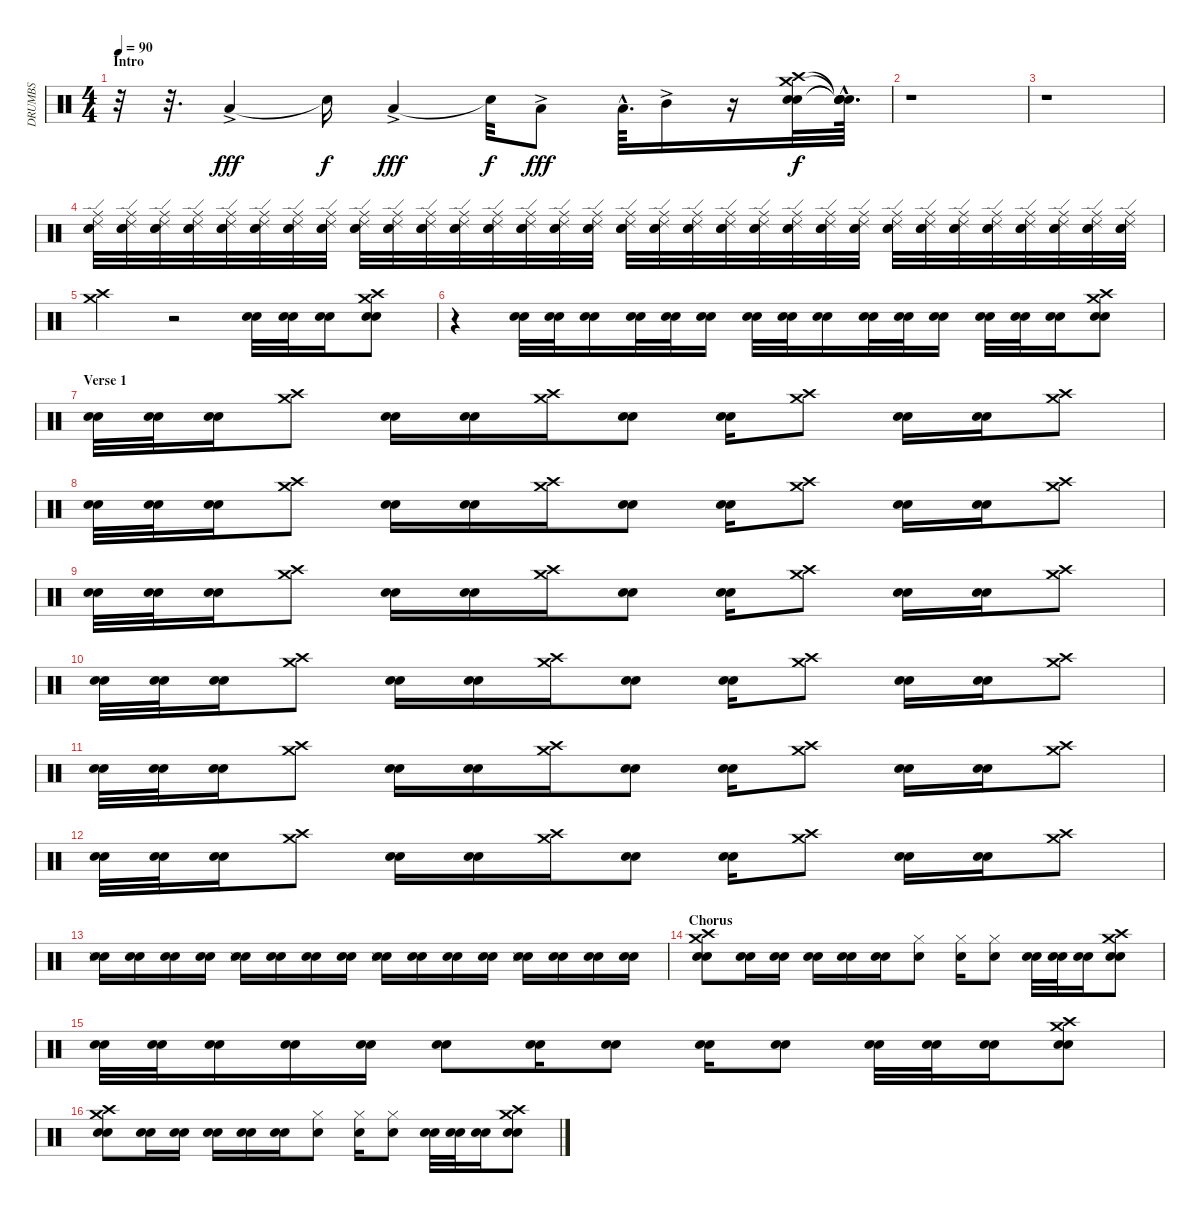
\track ("DRUMBS" "DRUMBS") {instrument percussion}
\staff {score}
\articulation defaults
\ts (4 4)
\section ("" "Intro")
\tempo 90
\clef neutral
\ks c
r.32{dy fff} r.32{d} "Low Tom (hit)"{ac}.4 "Snare (hit)"{t}.16{dy f} "Low Tom (hit)"{ac}.4{dy fff} "Snare (hit)"{t}.32{dy f} "Low Tom (hit)"{ac}.8{dy fff} "Low Tom (hit)"{hac}.64{d} "Mid Tom (hit)"{ac}.16 r.16 ("Crash high (hit)" "Crash medium (hit)" "Electric Snare (hit)" "Snare (hit) 2").32{dy f} ("Snare (hit)"{hac t} "Snare (hit)"{hac t} "Snare (hit)"{hac t} "Snare (hit)"{hac t}).64{d} |
r.1 |
r.1 |
("Snare (hit) 2" "Electric Snare (hit)" "Ride (edge) 2" "Ride (middle)").32{balance 8} ("Snare (hit) 2" "Electric Snare (hit)" "Ride (edge) 2" "Ride (middle)").32 ("Snare (hit) 2" "Electric Snare (hit)" "Ride (edge) 2" "Ride (middle)").32 ("Snare (hit) 2" "Electric Snare (hit)" "Ride (edge) 2" "Ride (middle)").32 ("Snare (hit) 2" "Electric Snare (hit)" "Ride (edge) 2" "Ride (middle)").32 ("Snare (hit) 2" "Electric Snare (hit)" "Ride (edge) 2" "Ride (middle)").32 ("Snare (hit) 2" "Electric Snare (hit)" "Ride (edge) 2" "Ride (middle)").32 ("Snare (hit) 2" "Electric Snare (hit)" "Ride (edge) 2" "Ride (middle)").32 ("Snare (hit) 2" "Electric Snare (hit)" "Ride (edge) 2" "Ride (middle)").32 ("Snare (hit) 2" "Electric Snare (hit)" "Ride (edge) 2" "Ride (middle)").32 ("Snare (hit) 2" "Electric Snare (hit)" "Ride (edge) 2" "Ride (middle)").32 ("Snare (hit) 2" "Electric Snare (hit)" "Ride (edge) 2" "Ride (middle)").32 ("Snare (hit) 2" "Electric Snare (hit)" "Ride (edge) 2" "Ride (middle)").32 ("Snare (hit) 2" "Electric Snare (hit)" "Ride (edge) 2" "Ride (middle)").32 ("Snare (hit) 2" "Electric Snare (hit)" "Ride (edge) 2" "Ride (middle)").32 ("Snare (hit) 2" "Electric Snare (hit)" "Ride (edge) 2" "Ride (middle)").32 ("Snare (hit) 2" "Electric Snare (hit)" "Ride (edge) 2" "Ride (middle)").32 ("Snare (hit) 2" "Electric Snare (hit)" "Ride (edge) 2" "Ride (middle)").32 ("Snare (hit) 2" "Electric Snare (hit)" "Ride (edge) 2" "Ride (middle)").32 ("Snare (hit) 2" "Electric Snare (hit)" "Ride (edge) 2" "Ride (middle)").32 ("Snare (hit) 2" "Electric Snare (hit)" "Ride (edge) 2" "Ride (middle)").32 ("Snare (hit) 2" "Electric Snare (hit)" "Ride (edge) 2" "Ride (middle)").32 ("Snare (hit) 2" "Electric Snare (hit)" "Ride (edge) 2" "Ride (middle)").32 ("Snare (hit) 2" "Electric Snare (hit)" "Ride (edge) 2" "Ride (middle)").32 ("Snare (hit) 2" "Electric Snare (hit)" "Ride (edge) 2" "Ride (middle)").32 ("Snare (hit) 2" "Electric Snare (hit)" "Ride (edge) 2" "Ride (middle)").32 ("Snare (hit) 2" "Electric Snare (hit)" "Ride (edge) 2" "Ride (middle)").32 ("Snare (hit) 2" "Electric Snare (hit)" "Ride (edge) 2" "Ride (middle)").32 ("Snare (hit) 2" "Electric Snare (hit)" "Ride (edge) 2" "Ride (middle)").32 ("Snare (hit) 2" "Electric Snare (hit)" "Ride (edge) 2" "Ride (middle)").32 ("Snare (hit) 2" "Electric Snare (hit)" "Ride (edge) 2" "Ride (middle)").32 ("Snare (hit) 2" "Electric Snare (hit)" "Ride (edge) 2" "Ride (middle)").32 |
("Crash high (hit)" "Crash medium (hit)").4 r.2 ("Electric Snare (hit)" "Snare (hit) 2").32 ("Electric Snare (hit)" "Snare (hit) 2").32 ("Electric Snare (hit)" "Snare (hit) 2").16 ("Electric Snare (hit)" "Snare (hit) 2" "Crash high (hit)" "Crash medium (hit)").8 |
r.4 ("Electric Snare (hit)" "Snare (hit) 2").32 ("Electric Snare (hit)" "Snare (hit) 2").32 ("Electric Snare (hit)" "Snare (hit) 2").16 ("Electric Snare (hit)" "Snare (hit) 2").32 ("Electric Snare (hit)" "Snare (hit) 2").32 ("Electric Snare (hit)" "Snare (hit) 2").16 ("Electric Snare (hit)" "Snare (hit) 2").32 ("Electric Snare (hit)" "Snare (hit) 2").32 ("Electric Snare (hit)" "Snare (hit) 2").16 ("Electric Snare (hit)" "Snare (hit) 2").32 ("Electric Snare (hit)" "Snare (hit) 2").32 ("Electric Snare (hit)" "Snare (hit) 2").16 ("Snare (hit) 2" "Electric Snare (hit)").32 ("Electric Snare (hit)" "Snare (hit) 2").32 ("Electric Snare (hit)" "Snare (hit) 2").16 ("Snare (hit) 2" "Electric Snare (hit)" "Crash medium (hit)" "Crash high (hit)").8 |
\section ("" "Verse 1")
("Electric Snare (hit)" "Snare (hit) 2").32 ("Electric Snare (hit)" "Snare (hit) 2").32 ("Electric Snare (hit)" "Snare (hit) 2").16 ("Crash medium (hit)" "Crash high (hit)").8 ("Electric Snare (hit)" "Snare (hit) 2").16 ("Electric Snare (hit)" "Snare (hit) 2").16 ("Crash medium (hit)" "Crash high (hit)").16 ("Electric Snare (hit)" "Snare (hit) 2").8 ("Electric Snare (hit)" "Snare (hit) 2").16 ("Crash medium (hit)" "Crash high (hit)").8 ("Electric Snare (hit)" "Snare (hit) 2").16 ("Electric Snare (hit)" "Snare (hit) 2").16 ("Crash medium (hit)" "Crash high (hit)").8 |
("Electric Snare (hit)" "Snare (hit) 2").32 ("Electric Snare (hit)" "Snare (hit) 2").32 ("Electric Snare (hit)" "Snare (hit) 2").16 ("Crash medium (hit)" "Crash high (hit)").8 ("Electric Snare (hit)" "Snare (hit) 2").16 ("Electric Snare (hit)" "Snare (hit) 2").16 ("Crash medium (hit)" "Crash high (hit)").16 ("Electric Snare (hit)" "Snare (hit) 2").8 ("Electric Snare (hit)" "Snare (hit) 2").16 ("Crash medium (hit)" "Crash high (hit)").8 ("Electric Snare (hit)" "Snare (hit) 2").16 ("Electric Snare (hit)" "Snare (hit) 2").16 ("Crash medium (hit)" "Crash high (hit)").8 |
("Electric Snare (hit)" "Snare (hit) 2").32 ("Electric Snare (hit)" "Snare (hit) 2").32 ("Electric Snare (hit)" "Snare (hit) 2").16 ("Crash medium (hit)" "Crash high (hit)").8 ("Electric Snare (hit)" "Snare (hit) 2").16 ("Electric Snare (hit)" "Snare (hit) 2").16 ("Crash medium (hit)" "Crash high (hit)").16 ("Electric Snare (hit)" "Snare (hit) 2").8 ("Electric Snare (hit)" "Snare (hit) 2").16 ("Crash medium (hit)" "Crash high (hit)").8 ("Electric Snare (hit)" "Snare (hit) 2").16 ("Electric Snare (hit)" "Snare (hit) 2").16 ("Crash medium (hit)" "Crash high (hit)").8 |
("Electric Snare (hit)" "Snare (hit) 2").32 ("Electric Snare (hit)" "Snare (hit) 2").32 ("Electric Snare (hit)" "Snare (hit) 2").16 ("Crash medium (hit)" "Crash high (hit)").8 ("Electric Snare (hit)" "Snare (hit) 2").16 ("Electric Snare (hit)" "Snare (hit) 2").16 ("Crash medium (hit)" "Crash high (hit)").16 ("Electric Snare (hit)" "Snare (hit) 2").8 ("Electric Snare (hit)" "Snare (hit) 2").16 ("Crash medium (hit)" "Crash high (hit)").8 ("Electric Snare (hit)" "Snare (hit) 2").16 ("Electric Snare (hit)" "Snare (hit) 2").16 ("Crash medium (hit)" "Crash high (hit)").8 |
("Electric Snare (hit)" "Snare (hit) 2").32 ("Electric Snare (hit)" "Snare (hit) 2").32 ("Electric Snare (hit)" "Snare (hit) 2").16 ("Crash medium (hit)" "Crash high (hit)").8 ("Electric Snare (hit)" "Snare (hit) 2").16 ("Electric Snare (hit)" "Snare (hit) 2").16 ("Crash medium (hit)" "Crash high (hit)").16 ("Electric Snare (hit)" "Snare (hit) 2").8 ("Electric Snare (hit)" "Snare (hit) 2").16 ("Crash medium (hit)" "Crash high (hit)").8 ("Electric Snare (hit)" "Snare (hit) 2").16 ("Electric Snare (hit)" "Snare (hit) 2").16 ("Crash medium (hit)" "Crash high (hit)").8 |
("Electric Snare (hit)" "Snare (hit) 2").32 ("Electric Snare (hit)" "Snare (hit) 2").32 ("Electric Snare (hit)" "Snare (hit) 2").16 ("Crash medium (hit)" "Crash high (hit)").8 ("Electric Snare (hit)" "Snare (hit) 2").16 ("Electric Snare (hit)" "Snare (hit) 2").16 ("Crash medium (hit)" "Crash high (hit)").16 ("Electric Snare (hit)" "Snare (hit) 2").8 ("Electric Snare (hit)" "Snare (hit) 2").16 ("Crash medium (hit)" "Crash high (hit)").8 ("Electric Snare (hit)" "Snare (hit) 2").16 ("Electric Snare (hit)" "Snare (hit) 2").16 ("Crash medium (hit)" "Crash high (hit)").8 |
("Electric Snare (hit)" "Snare (side stick) 3" "Snare (hit) 2").16 ("Electric Snare (hit)" "Snare (hit) 2").16 ("Electric Snare (hit)" "Snare (hit) 2").16 ("Electric Snare (hit)" "Snare (hit) 2").16 ("Electric Snare (hit)" "Snare (side stick) 3" "Snare (hit) 2").16 ("Electric Snare (hit)" "Snare (hit) 2").16 ("Electric Snare (hit)" "Snare (hit) 2").16 ("Electric Snare (hit)" "Snare (hit) 2").16 ("Electric Snare (hit)" "Snare (side stick) 3" "Snare (hit) 2").16 ("Electric Snare (hit)" "Snare (hit) 2").16 ("Electric Snare (hit)" "Snare (hit) 2").16 ("Electric Snare (hit)" "Snare (hit) 2").16 ("Electric Snare (hit)" "Snare (side stick) 3" "Snare (hit) 2").16 ("Electric Snare (hit)" "Snare (hit) 2").16 ("Electric Snare (hit)" "Snare (hit) 2").16 ("Electric Snare (hit)" "Snare (hit) 2").16 |
\section ("" "Chorus")
("Electric Snare (hit)" "Snare (hit) 2" "Crash medium (hit)" "Crash high (hit)").8 ("Electric Snare (hit)" "Snare (hit) 2").16 ("Electric Snare (hit)" "Snare (hit) 2").16 ("Electric Snare (hit)" "Snare (hit) 2").16 ("Electric Snare (hit)" "Snare (hit) 2").16 ("Electric Snare (hit)" "Snare (hit) 2").16 ("Snare (hit) 2" "Hi-Hat (closed)").8 ("Snare (hit) 2" "Hi-Hat (closed)").16 ("Snare (hit) 2" "Hi-Hat (closed)").8 ("Electric Snare (hit)" "Snare (hit) 2").32 ("Electric Snare (hit)" "Snare (hit) 2").32 ("Electric Snare (hit)" "Snare (hit) 2").16 ("Electric Snare (hit)" "Snare (hit) 2" "Crash medium (hit)" "Crash high (hit)").8 |
("Electric Snare (hit)" "Snare (hit) 2").32 ("Electric Snare (hit)" "Snare (hit) 2").32 ("Electric Snare (hit)" "Snare (hit) 2").16 ("Electric Snare (hit)" "Snare (hit) 2").16 ("Electric Snare (hit)" "Snare (hit) 2").16 ("Electric Snare (hit)" "Snare (hit) 2").8 ("Electric Snare (hit)" "Snare (hit) 2").16 ("Electric Snare (hit)" "Snare (hit) 2").8 ("Electric Snare (hit)" "Snare (hit) 2").16 ("Electric Snare (hit)" "Snare (hit) 2").8 ("Electric Snare (hit)" "Snare (hit) 2").32 ("Electric Snare (hit)" "Snare (hit) 2").32 ("Electric Snare (hit)" "Snare (hit) 2").16 ("Electric Snare (hit)" "Snare (hit) 2" "Crash medium (hit)" "Crash high (hit)").8 |
("Electric Snare (hit)" "Snare (hit) 2" "Crash medium (hit)" "Crash high (hit)").8 ("Electric Snare (hit)" "Snare (hit) 2").16 ("Electric Snare (hit)" "Snare (hit) 2").16 ("Electric Snare (hit)" "Snare (hit) 2").16 ("Electric Snare (hit)" "Snare (hit) 2").16 ("Electric Snare (hit)" "Snare (hit) 2").16 ("Snare (hit) 2" "Hi-Hat (closed)").8 ("Snare (hit) 2" "Hi-Hat (closed)").16 ("Snare (hit) 2" "Hi-Hat (closed)").8 ("Electric Snare (hit)" "Snare (hit) 2").32 ("Electric Snare (hit)" "Snare (hit) 2").32 ("Electric Snare (hit)" "Snare (hit) 2").16 ("Electric Snare (hit)" "Snare (hit) 2" "Crash medium (hit)" "Crash high (hit)").8
